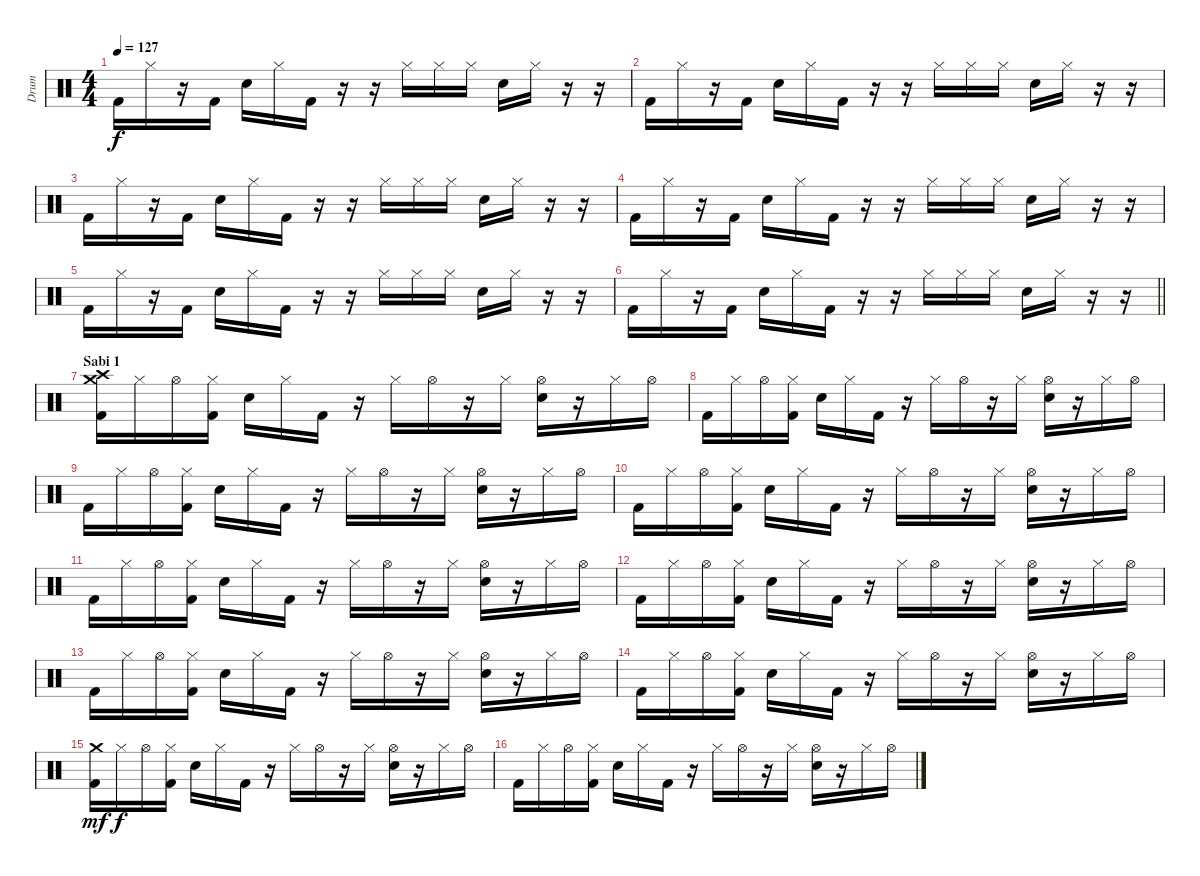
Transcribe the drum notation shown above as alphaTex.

\track ("Drum" "Drum") {instrument percussion}
\staff {score}
\articulation defaults
\ts (4 4)
\tempo 127
\clef neutral
\ks c "Kick (hit) 2".16{dy f} "Hi-Hat (closed)".16
r.16 "Kick (hit) 2".16 "Electric Snare (hit)".16 "Hi-Hat (closed)".16 "Kick (hit) 2".16 r.16 r.16 "Hi-Hat (closed)".16 "Hi-Hat (closed)".16 "Hi-Hat (closed)".16 "Electric Snare (hit)".16 "Hi-Hat (closed)".16 r.16 r.16 |
"Kick (hit) 2".16 "Hi-Hat (closed)".16 r.16 "Kick (hit) 2".16 "Electric Snare (hit)".16 "Hi-Hat (closed)".16 "Kick (hit) 2".16 r.16 r.16 "Hi-Hat (closed)".16 "Hi-Hat (closed)".16 "Hi-Hat (closed)".16 "Electric Snare (hit)".16 "Hi-Hat (closed)".16 r.16 r.16 |
"Kick (hit) 2".16 "Hi-Hat (closed)".16 r.16 "Kick (hit) 2".16 "Electric Snare (hit)".16 "Hi-Hat (closed)".16 "Kick (hit) 2".16 r.16 r.16 "Hi-Hat (closed)".16 "Hi-Hat (closed)".16 "Hi-Hat (closed)".16 "Electric Snare (hit)".16 "Hi-Hat (closed)".16 r.16 r.16 |
"Kick (hit) 2".16 "Hi-Hat (closed)".16 r.16 "Kick (hit) 2".16 "Electric Snare (hit)".16 "Hi-Hat (closed)".16 "Kick (hit) 2".16 r.16 r.16 "Hi-Hat (closed)".16 "Hi-Hat (closed)".16 "Hi-Hat (closed)".16 "Electric Snare (hit)".16 "Hi-Hat (closed)".16 r.16 r.16 |
"Kick (hit) 2".16 "Hi-Hat (closed)".16 r.16 "Kick (hit) 2".16 "Electric Snare (hit)".16 "Hi-Hat (closed)".16 "Kick (hit) 2".16 r.16 r.16 "Hi-Hat (closed)".16 "Hi-Hat (closed)".16 "Hi-Hat (closed)".16 "Electric Snare (hit)".16 "Hi-Hat (closed)".16 r.16 r.16 |
\barLineRight lightlight "Kick (hit) 2".16 "Hi-Hat (closed)".16
r.16 "Kick (hit) 2".16 "Electric Snare (hit)".16 "Hi-Hat (closed)".16 "Kick (hit) 2".16 r.16 r.16 "Hi-Hat (closed)".16 "Hi-Hat (closed)".16 "Hi-Hat (closed)".16 "Electric Snare (hit)".16 "Hi-Hat (closed)".16 r.16 r.16 |
\section ("" "Sabi 1")
("Crash high (hit)" "Crash medium (hit)" "Kick (hit) 2").16 "Hi-Hat (closed)".16 "Hi-Hat (open)".16 ("Hi-Hat (closed)" "Kick (hit) 2").16 "Electric Snare (hit)".16 "Hi-Hat (closed)".16 "Kick (hit) 2".16 r.16 "Hi-Hat (closed)".16 "Hi-Hat (open)".16 r.16 "Hi-Hat (closed)".16 ("Hi-Hat (open)" "Electric Snare (hit)").16 r.16 "Hi-Hat (closed)".16 "Hi-Hat (open)".16 |
"Kick (hit) 2".16 "Hi-Hat (closed)".16 "Hi-Hat (open)".16 ("Hi-Hat (closed)" "Kick (hit) 2").16 "Electric Snare (hit)".16 "Hi-Hat (closed)".16 "Kick (hit) 2".16 r.16 "Hi-Hat (closed)".16 "Hi-Hat (open)".16 r.16 "Hi-Hat (closed)".16 ("Hi-Hat (open)" "Electric Snare (hit)").16 r.16 "Hi-Hat (closed)".16 "Hi-Hat (open)".16 |
"Kick (hit) 2".16 "Hi-Hat (closed)".16 "Hi-Hat (open)".16 ("Hi-Hat (closed)" "Kick (hit) 2").16 "Electric Snare (hit)".16 "Hi-Hat (closed)".16 "Kick (hit) 2".16 r.16 "Hi-Hat (closed)".16 "Hi-Hat (open)".16 r.16 "Hi-Hat (closed)".16 ("Hi-Hat (open)" "Electric Snare (hit)").16 r.16 "Hi-Hat (closed)".16 "Hi-Hat (open)".16 |
"Kick (hit) 2".16 "Hi-Hat (closed)".16 "Hi-Hat (open)".16 ("Hi-Hat (closed)" "Kick (hit) 2").16 "Electric Snare (hit)".16 "Hi-Hat (closed)".16 "Kick (hit) 2".16 r.16 "Hi-Hat (closed)".16 "Hi-Hat (open)".16 r.16 "Hi-Hat (closed)".16 ("Hi-Hat (open)" "Electric Snare (hit)").16 r.16 "Hi-Hat (closed)".16 "Hi-Hat (open)".16 |
"Kick (hit) 2".16 "Hi-Hat (closed)".16 "Hi-Hat (open)".16 ("Hi-Hat (closed)" "Kick (hit) 2").16 "Electric Snare (hit)".16 "Hi-Hat (closed)".16 "Kick (hit) 2".16 r.16 "Hi-Hat (closed)".16 "Hi-Hat (open)".16 r.16 "Hi-Hat (closed)".16 ("Hi-Hat (open)" "Electric Snare (hit)").16 r.16 "Hi-Hat (closed)".16 "Hi-Hat (open)".16 |
"Kick (hit) 2".16 "Hi-Hat (closed)".16 "Hi-Hat (open)".16 ("Hi-Hat (closed)" "Kick (hit) 2").16 "Electric Snare (hit)".16 "Hi-Hat (closed)".16 "Kick (hit) 2".16 r.16 "Hi-Hat (closed)".16 "Hi-Hat (open)".16 r.16 "Hi-Hat (closed)".16 ("Hi-Hat (open)" "Electric Snare (hit)").16 r.16 "Hi-Hat (closed)".16 "Hi-Hat (open)".16 |
"Kick (hit) 2".16 "Hi-Hat (closed)".16 "Hi-Hat (open)".16 ("Hi-Hat (closed)" "Kick (hit) 2").16 "Electric Snare (hit)".16 "Hi-Hat (closed)".16 "Kick (hit) 2".16 r.16 "Hi-Hat (closed)".16 "Hi-Hat (open)".16 r.16 "Hi-Hat (closed)".16 ("Hi-Hat (open)" "Electric Snare (hit)").16 r.16 "Hi-Hat (closed)".16 "Hi-Hat (open)".16 |
"Kick (hit) 2".16 "Hi-Hat (closed)".16 "Hi-Hat (open)".16 ("Hi-Hat (closed)" "Kick (hit) 2").16 "Electric Snare (hit)".16 "Hi-Hat (closed)".16 "Kick (hit) 2".16 r.16 "Hi-Hat (closed)".16 "Hi-Hat (open)".16 r.16 "Hi-Hat (closed)".16 ("Hi-Hat (open)" "Electric Snare (hit)").16 r.16 "Hi-Hat (closed)".16 "Hi-Hat (open)".16 |
("Crash medium (hit)" "Kick (hit) 2").16{dy mf} "Hi-Hat (closed)".16{dy f} "Hi-Hat (open)".16 ("Hi-Hat (closed)" "Kick (hit) 2").16 "Electric Snare (hit)".16 "Hi-Hat (closed)".16 "Kick (hit) 2".16 r.16 "Hi-Hat (closed)".16 "Hi-Hat (open)".16 r.16 "Hi-Hat (closed)".16 ("Hi-Hat (open)" "Electric Snare (hit)").16 r.16 "Hi-Hat (closed)".16 "Hi-Hat (open)".16 |
"Kick (hit) 2".16 "Hi-Hat (closed)".16 "Hi-Hat (open)".16 ("Hi-Hat (closed)" "Kick (hit) 2").16 "Electric Snare (hit)".16 "Hi-Hat (closed)".16 "Kick (hit) 2".16 r.16 "Hi-Hat (closed)".16 "Hi-Hat (open)".16 r.16 "Hi-Hat (closed)".16 ("Hi-Hat (open)" "Electric Snare (hit)").16 r.16 "Hi-Hat (closed)".16 "Hi-Hat (open)".16
